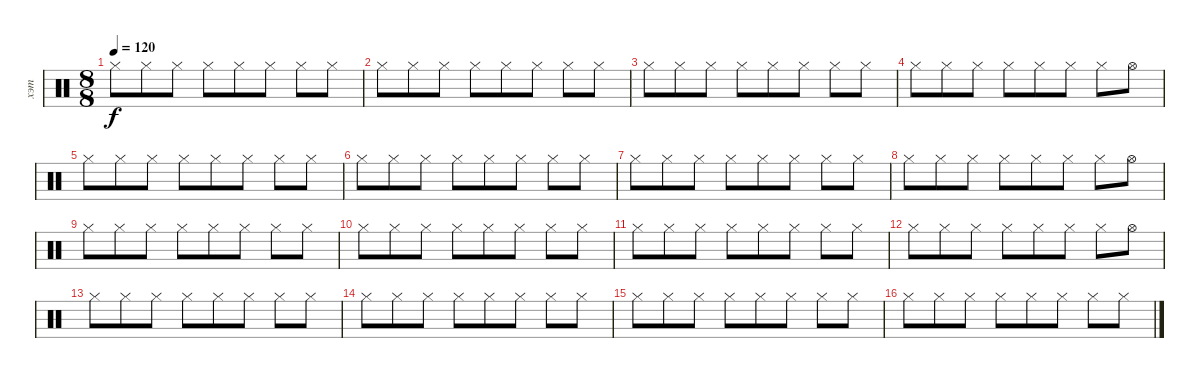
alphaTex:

\track ("хэт" "хэт") {instrument percussion}
\staff {score}
\articulation defaults
\ts (8 8)
\tempo 120
\clef neutral
\ks c "Hi-Hat (closed)".8{dy f} "Hi-Hat (closed)".8 "Hi-Hat (closed)".8 "Hi-Hat (closed)".8 "Hi-Hat (closed)".8 "Hi-Hat (closed)".8 "Hi-Hat (closed)".8 "Hi-Hat (closed)".8
|
"Hi-Hat (closed)".8 "Hi-Hat (closed)".8 "Hi-Hat (closed)".8 "Hi-Hat (closed)".8 "Hi-Hat (closed)".8 "Hi-Hat (closed)".8 "Hi-Hat (closed)".8 "Hi-Hat (closed)".8 |
"Hi-Hat (closed)".8 "Hi-Hat (closed)".8 "Hi-Hat (closed)".8 "Hi-Hat (closed)".8 "Hi-Hat (closed)".8 "Hi-Hat (closed)".8 "Hi-Hat (closed)".8 "Hi-Hat (closed)".8 |
"Hi-Hat (closed)".8 "Hi-Hat (closed)".8 "Hi-Hat (closed)".8 "Hi-Hat (closed)".8 "Hi-Hat (closed)".8 "Hi-Hat (closed)".8 "Hi-Hat (closed)".8 "Hi-Hat (open)".8 |
"Hi-Hat (closed)".8 "Hi-Hat (closed)".8 "Hi-Hat (closed)".8 "Hi-Hat (closed)".8 "Hi-Hat (closed)".8 "Hi-Hat (closed)".8 "Hi-Hat (closed)".8 "Hi-Hat (closed)".8 |
"Hi-Hat (closed)".8 "Hi-Hat (closed)".8 "Hi-Hat (closed)".8 "Hi-Hat (closed)".8 "Hi-Hat (closed)".8 "Hi-Hat (closed)".8 "Hi-Hat (closed)".8 "Hi-Hat (closed)".8 |
"Hi-Hat (closed)".8 "Hi-Hat (closed)".8 "Hi-Hat (closed)".8 "Hi-Hat (closed)".8 "Hi-Hat (closed)".8 "Hi-Hat (closed)".8 "Hi-Hat (closed)".8 "Hi-Hat (closed)".8 |
"Hi-Hat (closed)".8 "Hi-Hat (closed)".8 "Hi-Hat (closed)".8 "Hi-Hat (closed)".8 "Hi-Hat (closed)".8 "Hi-Hat (closed)".8 "Hi-Hat (closed)".8 "Hi-Hat (open)".8 |
"Hi-Hat (closed)".8 "Hi-Hat (closed)".8 "Hi-Hat (closed)".8 "Hi-Hat (closed)".8 "Hi-Hat (closed)".8 "Hi-Hat (closed)".8 "Hi-Hat (closed)".8 "Hi-Hat (closed)".8 |
"Hi-Hat (closed)".8 "Hi-Hat (closed)".8 "Hi-Hat (closed)".8 "Hi-Hat (closed)".8 "Hi-Hat (closed)".8 "Hi-Hat (closed)".8 "Hi-Hat (closed)".8 "Hi-Hat (closed)".8 |
"Hi-Hat (closed)".8 "Hi-Hat (closed)".8 "Hi-Hat (closed)".8 "Hi-Hat (closed)".8 "Hi-Hat (closed)".8 "Hi-Hat (closed)".8 "Hi-Hat (closed)".8 "Hi-Hat (closed)".8 |
"Hi-Hat (closed)".8 "Hi-Hat (closed)".8 "Hi-Hat (closed)".8 "Hi-Hat (closed)".8 "Hi-Hat (closed)".8 "Hi-Hat (closed)".8 "Hi-Hat (closed)".8 "Hi-Hat (open)".8 |
"Hi-Hat (closed)".8 "Hi-Hat (closed)".8 "Hi-Hat (closed)".8 "Hi-Hat (closed)".8 "Hi-Hat (closed)".8 "Hi-Hat (closed)".8 "Hi-Hat (closed)".8 "Hi-Hat (closed)".8 |
"Hi-Hat (closed)".8 "Hi-Hat (closed)".8 "Hi-Hat (closed)".8 "Hi-Hat (closed)".8 "Hi-Hat (closed)".8 "Hi-Hat (closed)".8 "Hi-Hat (closed)".8 "Hi-Hat (closed)".8 |
"Hi-Hat (closed)".8 "Hi-Hat (closed)".8 "Hi-Hat (closed)".8 "Hi-Hat (closed)".8 "Hi-Hat (closed)".8 "Hi-Hat (closed)".8 "Hi-Hat (closed)".8 "Hi-Hat (closed)".8 |
"Hi-Hat (closed)".8 "Hi-Hat (closed)".8 "Hi-Hat (closed)".8 "Hi-Hat (closed)".8 "Hi-Hat (closed)".8 "Hi-Hat (closed)".8 "Hi-Hat (closed)".8 "Hi-Hat (closed)".8
